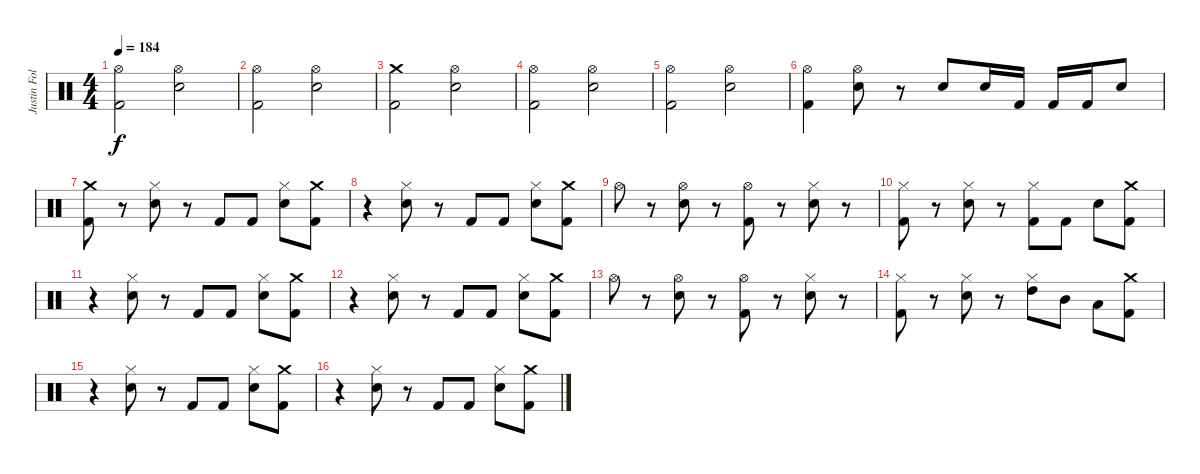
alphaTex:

\track ("Justin Foley" "Justin Fol") {instrument percussion}
\staff {score}
\articulation defaults
\ts (4 4)
\tempo 184
\clef neutral
\ks c
("Hi-Hat (open)" "Kick (hit) 2").2{dy f} ("Hi-Hat (open)" "Electric Snare (hit)").2 |
("Hi-Hat (open)" "Kick (hit) 2").2 ("Hi-Hat (open)" "Electric Snare (hit)").2 |
("Crash medium (hit)" "Kick (hit) 2").2 ("Hi-Hat (open)" "Electric Snare (hit)").2 |
("Hi-Hat (open)" "Kick (hit) 2").2 ("Hi-Hat (open)" "Electric Snare (hit)").2 |
("Hi-Hat (open)" "Kick (hit) 2").2 ("Hi-Hat (open)" "Electric Snare (hit)").2 |
("Hi-Hat (open)" "Kick (hit) 2").4 ("Hi-Hat (open)" "Electric Snare (hit)").8 r.8 "Electric Snare (hit)".8 "Electric Snare (hit)".16 "Kick (hit) 2".16 "Kick (hit) 2".16 "Kick (hit) 2".16 "Electric Snare (hit)".8 |
("Crash medium (hit)" "Kick (hit) 2").8 r.8 ("Hi-Hat (closed)" "Electric Snare (hit)").8 r.8 "Kick (hit) 2".8 "Kick (hit) 2".8 ("Hi-Hat (closed)" "Electric Snare (hit)").8 ("Crash medium (hit)" "Kick (hit) 2").8 |
r.4 ("Hi-Hat (closed)" "Electric Snare (hit)").8 r.8 "Kick (hit) 2".8 "Kick (hit) 2".8 ("Hi-Hat (closed)" "Electric Snare (hit)").8 ("Crash medium (hit)" "Kick (hit) 2").8 |
"Hi-Hat (open)".8 r.8 ("Hi-Hat (open)" "Electric Snare (hit)").8 r.8 ("Hi-Hat (open)" "Kick (hit) 2").8 r.8 ("Hi-Hat (closed)" "Electric Snare (hit)").8 r.8 |
("Hi-Hat (closed)" "Kick (hit) 2").8 r.8 ("Hi-Hat (closed)" "Electric Snare (hit)").8 r.8 ("Hi-Hat (closed)" "Kick (hit) 2").8 "Kick (hit) 2".8 "Electric Snare (hit)".8 ("Crash medium (hit)" "Kick (hit) 2").8 |
r.4 ("Hi-Hat (closed)" "Electric Snare (hit)").8 r.8 "Kick (hit) 2".8 "Kick (hit) 2".8 ("Hi-Hat (closed)" "Electric Snare (hit)").8 ("Crash medium (hit)" "Kick (hit) 2").8 |
r.4 ("Hi-Hat (closed)" "Electric Snare (hit)").8 r.8 "Kick (hit) 2".8 "Kick (hit) 2".8 ("Hi-Hat (closed)" "Electric Snare (hit)").8 ("Crash medium (hit)" "Kick (hit) 2").8 |
"Hi-Hat (open)".8 r.8 ("Hi-Hat (open)" "Electric Snare (hit)").8 r.8 ("Hi-Hat (open)" "Kick (hit) 2").8 r.8 ("Hi-Hat (closed)" "Electric Snare (hit)").8 r.8 |
("Hi-Hat (closed)" "Kick (hit) 2").8 r.8 ("Hi-Hat (closed)" "Electric Snare (hit)").8 r.8 ("Hi-Hat (closed)" "High Tom (hit)").8 "Mid Tom (hit)".8 "Low Tom (hit)".8 ("Crash medium (hit)" "Kick (hit) 2").8 |
r.4 ("Hi-Hat (closed)" "Electric Snare (hit)").8 r.8 "Kick (hit) 2".8 "Kick (hit) 2".8 ("Hi-Hat (closed)" "Electric Snare (hit)").8 ("Crash medium (hit)" "Kick (hit) 2").8 |
r.4 ("Hi-Hat (closed)" "Electric Snare (hit)").8 r.8 "Kick (hit) 2".8 "Kick (hit) 2".8 ("Hi-Hat (closed)" "Electric Snare (hit)").8 ("Crash medium (hit)" "Kick (hit) 2").8
